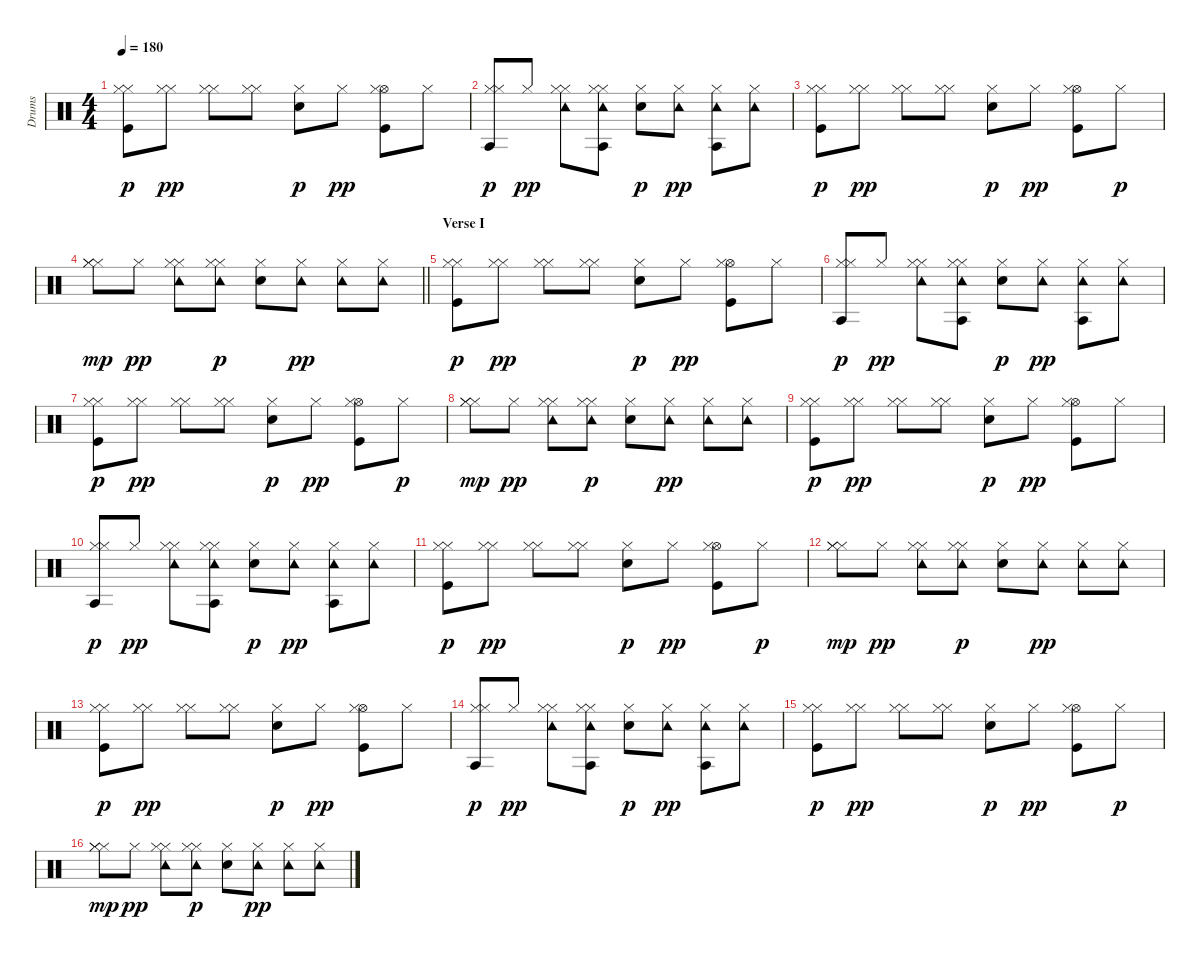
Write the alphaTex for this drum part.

\track ("Drums" "Drums") {instrument percussion}
\staff {score}
\articulation defaults
\ts (4 4)
\tempo 180
\clef neutral
\ks c
("Hi-Hat (closed)" "Hi-Hat (closed)" "Kick (hit)").8{dy p} ("Hi-Hat (closed)" "Hi-Hat (closed)").8{dy pp} ("Hi-Hat (closed)" "Hi-Hat (closed)").8 ("Hi-Hat (closed)" "Hi-Hat (closed)").8 ("Electric Snare (hit)" "Hi-Hat (closed)").8{dy p} "Hi-Hat (closed)".8{dy pp} ("Hi-Hat (open)" "Hi-Hat (closed)" "Kick (hit)").8 "Hi-Hat (closed)".8 |
("Agogo tow (hit)" "Hi-Hat (closed)" "Hi-Hat (closed)").8{dy p} "Hi-Hat (closed)".8{dy pp} ("Tambourine (hit)" "Hi-Hat (closed)" "Hi-Hat (closed)").8 ("Tambourine (hit)" "Hi-Hat (closed)" "Hi-Hat (closed)" "Agogo tow (hit)").8 ("Electric Snare (hit)" "Hi-Hat (closed)").8{dy p} ("Tambourine (hit)" "Hi-Hat (closed)").8{dy pp} ("Tambourine (hit)" "Hi-Hat (closed)" "Agogo tow (hit)").8 ("Tambourine (hit)" "Hi-Hat (closed)").8 |
("Hi-Hat (closed)" "Hi-Hat (closed)" "Kick (hit)").8{dy p} ("Hi-Hat (closed)" "Hi-Hat (closed)").8{dy pp} ("Hi-Hat (closed)" "Hi-Hat (closed)").8 ("Hi-Hat (closed)" "Hi-Hat (closed)").8 ("Electric Snare (hit)" "Hi-Hat (closed)").8{dy p} "Hi-Hat (closed)".8{dy pp} ("Hi-Hat (open)" "Hi-Hat (closed)" "Kick (hit)").8 "Hi-Hat (closed)".8{dy p} |
\barLineRight lightlight
("Hi-Hat (closed)" "Hi-Hat (closed)" "Hi-Hat (closed)").8{dy mp} "Hi-Hat (closed)".8{dy pp} ("Tambourine (hit)" "Hi-Hat (closed)" "Hi-Hat (closed)").8 ("Tambourine (hit)" "Hi-Hat (closed)" "Hi-Hat (closed)").8{dy p} ("Electric Snare (hit)" "Hi-Hat (closed)").8 ("Tambourine (hit)" "Hi-Hat (closed)").8{dy pp} ("Tambourine (hit)" "Hi-Hat (closed)").8 ("Tambourine (hit)" "Hi-Hat (closed)").8 |
\section ("" "Verse I")
("Hi-Hat (closed)" "Hi-Hat (closed)" "Kick (hit)").8{dy p} ("Hi-Hat (closed)" "Hi-Hat (closed)").8{dy pp} ("Hi-Hat (closed)" "Hi-Hat (closed)").8 ("Hi-Hat (closed)" "Hi-Hat (closed)").8 ("Electric Snare (hit)" "Hi-Hat (closed)").8{dy p} "Hi-Hat (closed)".8{dy pp} ("Hi-Hat (open)" "Hi-Hat (closed)" "Kick (hit)").8 "Hi-Hat (closed)".8 |
("Agogo tow (hit)" "Hi-Hat (closed)" "Hi-Hat (closed)").8{dy p} "Hi-Hat (closed)".8{dy pp} ("Tambourine (hit)" "Hi-Hat (closed)" "Hi-Hat (closed)").8 ("Tambourine (hit)" "Hi-Hat (closed)" "Hi-Hat (closed)" "Agogo tow (hit)").8 ("Electric Snare (hit)" "Hi-Hat (closed)").8{dy p} ("Tambourine (hit)" "Hi-Hat (closed)").8{dy pp} ("Tambourine (hit)" "Hi-Hat (closed)" "Agogo tow (hit)").8 ("Tambourine (hit)" "Hi-Hat (closed)").8 |
("Hi-Hat (closed)" "Hi-Hat (closed)" "Kick (hit)").8{dy p} ("Hi-Hat (closed)" "Hi-Hat (closed)").8{dy pp} ("Hi-Hat (closed)" "Hi-Hat (closed)").8 ("Hi-Hat (closed)" "Hi-Hat (closed)").8 ("Electric Snare (hit)" "Hi-Hat (closed)").8{dy p} "Hi-Hat (closed)".8{dy pp} ("Hi-Hat (open)" "Hi-Hat (closed)" "Kick (hit)").8 "Hi-Hat (closed)".8{dy p} |
("Hi-Hat (closed)" "Hi-Hat (closed)" "Hi-Hat (closed)").8{dy mp} "Hi-Hat (closed)".8{dy pp} ("Tambourine (hit)" "Hi-Hat (closed)" "Hi-Hat (closed)").8 ("Tambourine (hit)" "Hi-Hat (closed)" "Hi-Hat (closed)").8{dy p} ("Electric Snare (hit)" "Hi-Hat (closed)").8 ("Tambourine (hit)" "Hi-Hat (closed)").8{dy pp} ("Tambourine (hit)" "Hi-Hat (closed)").8 ("Tambourine (hit)" "Hi-Hat (closed)").8 |
("Hi-Hat (closed)" "Hi-Hat (closed)" "Kick (hit)").8{dy p} ("Hi-Hat (closed)" "Hi-Hat (closed)").8{dy pp} ("Hi-Hat (closed)" "Hi-Hat (closed)").8 ("Hi-Hat (closed)" "Hi-Hat (closed)").8 ("Electric Snare (hit)" "Hi-Hat (closed)").8{dy p} "Hi-Hat (closed)".8{dy pp} ("Hi-Hat (open)" "Hi-Hat (closed)" "Kick (hit)").8 "Hi-Hat (closed)".8 |
("Agogo tow (hit)" "Hi-Hat (closed)" "Hi-Hat (closed)").8{dy p} "Hi-Hat (closed)".8{dy pp} ("Tambourine (hit)" "Hi-Hat (closed)" "Hi-Hat (closed)").8 ("Tambourine (hit)" "Hi-Hat (closed)" "Hi-Hat (closed)" "Agogo tow (hit)").8 ("Electric Snare (hit)" "Hi-Hat (closed)").8{dy p} ("Tambourine (hit)" "Hi-Hat (closed)").8{dy pp} ("Tambourine (hit)" "Hi-Hat (closed)" "Agogo tow (hit)").8 ("Tambourine (hit)" "Hi-Hat (closed)").8 |
("Hi-Hat (closed)" "Hi-Hat (closed)" "Kick (hit)").8{dy p} ("Hi-Hat (closed)" "Hi-Hat (closed)").8{dy pp} ("Hi-Hat (closed)" "Hi-Hat (closed)").8 ("Hi-Hat (closed)" "Hi-Hat (closed)").8 ("Electric Snare (hit)" "Hi-Hat (closed)").8{dy p} "Hi-Hat (closed)".8{dy pp} ("Hi-Hat (open)" "Hi-Hat (closed)" "Kick (hit)").8 "Hi-Hat (closed)".8{dy p} |
("Hi-Hat (closed)" "Hi-Hat (closed)" "Hi-Hat (closed)").8{dy mp} "Hi-Hat (closed)".8{dy pp} ("Tambourine (hit)" "Hi-Hat (closed)" "Hi-Hat (closed)").8 ("Tambourine (hit)" "Hi-Hat (closed)" "Hi-Hat (closed)").8{dy p} ("Electric Snare (hit)" "Hi-Hat (closed)").8 ("Tambourine (hit)" "Hi-Hat (closed)").8{dy pp} ("Tambourine (hit)" "Hi-Hat (closed)").8 ("Tambourine (hit)" "Hi-Hat (closed)").8 |
("Hi-Hat (closed)" "Hi-Hat (closed)" "Kick (hit)").8{dy p} ("Hi-Hat (closed)" "Hi-Hat (closed)").8{dy pp} ("Hi-Hat (closed)" "Hi-Hat (closed)").8 ("Hi-Hat (closed)" "Hi-Hat (closed)").8 ("Electric Snare (hit)" "Hi-Hat (closed)").8{dy p} "Hi-Hat (closed)".8{dy pp} ("Hi-Hat (open)" "Hi-Hat (closed)" "Kick (hit)").8 "Hi-Hat (closed)".8 |
("Agogo tow (hit)" "Hi-Hat (closed)" "Hi-Hat (closed)").8{dy p} "Hi-Hat (closed)".8{dy pp} ("Tambourine (hit)" "Hi-Hat (closed)" "Hi-Hat (closed)").8 ("Tambourine (hit)" "Hi-Hat (closed)" "Hi-Hat (closed)" "Agogo tow (hit)").8 ("Electric Snare (hit)" "Hi-Hat (closed)").8{dy p} ("Tambourine (hit)" "Hi-Hat (closed)").8{dy pp} ("Tambourine (hit)" "Hi-Hat (closed)" "Agogo tow (hit)").8 ("Tambourine (hit)" "Hi-Hat (closed)").8 |
("Hi-Hat (closed)" "Hi-Hat (closed)" "Kick (hit)").8{dy p} ("Hi-Hat (closed)" "Hi-Hat (closed)").8{dy pp} ("Hi-Hat (closed)" "Hi-Hat (closed)").8 ("Hi-Hat (closed)" "Hi-Hat (closed)").8 ("Electric Snare (hit)" "Hi-Hat (closed)").8{dy p} "Hi-Hat (closed)".8{dy pp} ("Hi-Hat (open)" "Hi-Hat (closed)" "Kick (hit)").8 "Hi-Hat (closed)".8{dy p} |
("Hi-Hat (closed)" "Hi-Hat (closed)" "Hi-Hat (closed)").8{dy mp} "Hi-Hat (closed)".8{dy pp} ("Tambourine (hit)" "Hi-Hat (closed)" "Hi-Hat (closed)").8 ("Tambourine (hit)" "Hi-Hat (closed)" "Hi-Hat (closed)").8{dy p} ("Electric Snare (hit)" "Hi-Hat (closed)").8 ("Tambourine (hit)" "Hi-Hat (closed)").8{dy pp} ("Tambourine (hit)" "Hi-Hat (closed)").8 ("Tambourine (hit)" "Hi-Hat (closed)").8
